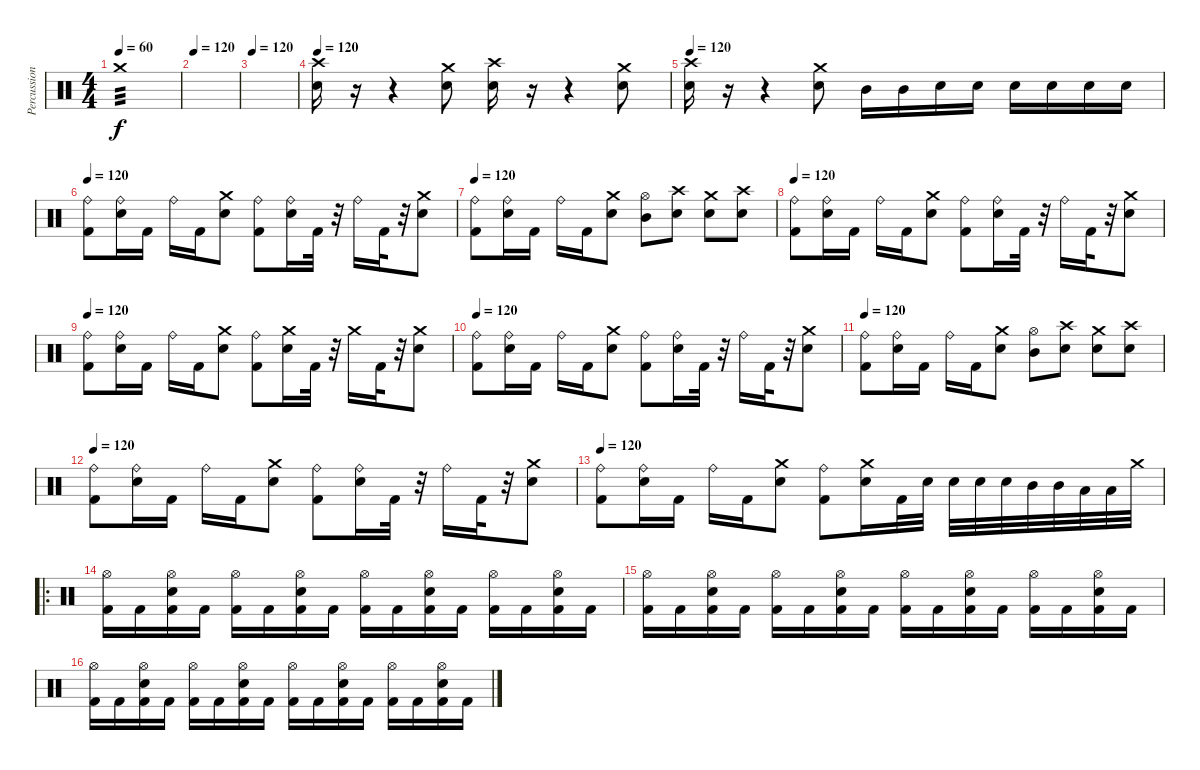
\track ("Percussions" "Percussion") {instrument percussion}
\staff {score}
\articulation defaults
\ts (4 4)
\tempo 60
\clef neutral
\ks c "Crash medium (hit)".1{tp 3 dy f}
|
\tempo 120
|
\tempo 120
|
\tempo 120
("Crash high (hit)" "Snare (hit) 2").16 r.16 r.4 ("Crash medium (hit)" "Electric Snare (hit)").8 ("Crash high (hit)" "Snare (hit) 2").16 r.16 r.4 ("Crash medium (hit)" "Electric Snare (hit)").8 |
\tempo 120
("Crash high (hit)" "Snare (hit) 2").16 r.16 r.4 ("Crash medium (hit)" "Electric Snare (hit)").8 "Mid Tom (hit)".16 "Mid Tom (hit)".16 "Snare (hit) 2".16 "Snare (hit) 2".16 "Electric Snare (hit)".16 "Electric Snare (hit)".16 "Snare (hit) 2".16 "Snare (hit) 2".16 |
\tempo 120
("Ride (bell)" "Kick (hit) 2").8 ("Ride (bell)" "Electric Snare (hit)").16 "Kick (hit) 2".16 "Ride (bell)".16 "Kick (hit) 2".16 ("Crash medium (hit)" "Electric Snare (hit)").8 ("Ride (bell)" "Kick (hit) 2").8 ("Ride (bell)" "Electric Snare (hit)").16 "Kick (hit) 2".32 r.32 "Ride (bell)".16 "Kick (hit) 2".32 r.32 ("Crash medium (hit)" "Electric Snare (hit)").8 |
\tempo 120
("Ride (bell)" "Kick (hit) 2").8 ("Ride (bell)" "Electric Snare (hit)").16 "Kick (hit) 2".16 "Ride (bell)".16 "Kick (hit) 2".16 ("Crash medium (hit)" "Electric Snare (hit)").8 ("Mid Tom (hit)" "Hi-Hat (open)").8 ("Snare (hit) 2" "Crash high (hit)").8 ("Electric Snare (hit)" "Crash medium (hit)").8 ("Snare (hit) 2" "Crash high (hit)").8 |
\tempo 120
("Ride (bell)" "Kick (hit) 2").8 ("Ride (bell)" "Electric Snare (hit)").16 "Kick (hit) 2".16 "Ride (bell)".16 "Kick (hit) 2".16 ("Crash medium (hit)" "Electric Snare (hit)").8 ("Ride (bell)" "Kick (hit) 2").8 ("Ride (bell)" "Electric Snare (hit)").16 "Kick (hit) 2".32 r.32 "Ride (bell)".16 "Kick (hit) 2".32 r.32 ("Crash medium (hit)" "Electric Snare (hit)").8 |
\tempo 120
("Ride (bell)" "Kick (hit) 2").8 ("Ride (bell)" "Electric Snare (hit)").16 "Kick (hit) 2".16 "Ride (bell)".16 "Kick (hit) 2".16 ("Crash medium (hit)" "Electric Snare (hit)").8 ("Ride (bell)" "Kick (hit) 2").8 ("Crash medium (hit)" "Electric Snare (hit)").16 "Kick (hit) 2".32 r.32 "Crash medium (hit)".16 "Kick (hit) 2".32 r.32 ("Crash medium (hit)" "Electric Snare (hit)").8 |
\tempo 120
("Ride (bell)" "Kick (hit) 2").8 ("Ride (bell)" "Electric Snare (hit)").16 "Kick (hit) 2".16 "Ride (bell)".16 "Kick (hit) 2".16 ("Crash medium (hit)" "Electric Snare (hit)").8 ("Ride (bell)" "Kick (hit) 2").8 ("Ride (bell)" "Electric Snare (hit)").16 "Kick (hit) 2".32 r.32 "Ride (bell)".16 "Kick (hit) 2".32 r.32 ("Crash medium (hit)" "Electric Snare (hit)").8 |
\tempo 120
("Ride (bell)" "Kick (hit) 2").8 ("Ride (bell)" "Electric Snare (hit)").16 "Kick (hit) 2".16 "Ride (bell)".16 "Kick (hit) 2".16 ("Crash medium (hit)" "Electric Snare (hit)").8 ("Mid Tom (hit)" "Hi-Hat (open)").8 ("Snare (hit) 2" "Crash high (hit)").8 ("Electric Snare (hit)" "Crash medium (hit)").8 ("Snare (hit) 2" "Crash high (hit)").8 |
\tempo 120
("Ride (bell)" "Kick (hit) 2").8 ("Ride (bell)" "Electric Snare (hit)").16 "Kick (hit) 2".16 "Ride (bell)".16 "Kick (hit) 2".16 ("Crash medium (hit)" "Electric Snare (hit)").8 ("Ride (bell)" "Kick (hit) 2").8 ("Ride (bell)" "Electric Snare (hit)").16 "Kick (hit) 2".32 r.32 "Ride (bell)".16 "Kick (hit) 2".32 r.32 ("Crash medium (hit)" "Electric Snare (hit)").8 |
\tempo 120
("Ride (bell)" "Kick (hit) 2").8 ("Ride (bell)" "Electric Snare (hit)").16 "Kick (hit) 2".16 "Ride (bell)".16 "Kick (hit) 2".16 ("Crash medium (hit)" "Electric Snare (hit)").8 ("Ride (bell)" "Kick (hit) 2").8 ("Crash medium (hit)" "Electric Snare (hit)").16 "Kick (hit) 2".32 "Electric Snare (hit)".32 "Electric Snare (hit)".32 "Snare (hit) 2".32 "Snare (hit) 2".32 "Mid Tom (hit)".32 "Mid Tom (hit)".32 "Low Tom (hit)".32 "Low Tom (hit)".32 "Crash medium (hit)".32 |
\ro
("Kick (hit) 2" "Hi-Hat (open)").16 "Kick (hit) 2".16 ("Kick (hit) 2" "Electric Snare (hit)" "Hi-Hat (open)").16 "Kick (hit) 2".16 ("Kick (hit) 2" "Hi-Hat (open)").16 "Kick (hit) 2".16 ("Kick (hit) 2" "Electric Snare (hit)" "Hi-Hat (open)").16 "Kick (hit) 2".16 ("Kick (hit) 2" "Hi-Hat (open)").16 "Kick (hit) 2".16 ("Kick (hit) 2" "Electric Snare (hit)" "Hi-Hat (open)").16 "Kick (hit) 2".16 ("Kick (hit) 2" "Hi-Hat (open)").16 "Kick (hit) 2".16 ("Kick (hit) 2" "Electric Snare (hit)" "Hi-Hat (open)").16 "Kick (hit) 2".16 |
("Kick (hit) 2" "Hi-Hat (open)").16 "Kick (hit) 2".16 ("Kick (hit) 2" "Electric Snare (hit)" "Hi-Hat (open)").16 "Kick (hit) 2".16 ("Kick (hit) 2" "Hi-Hat (open)").16 "Kick (hit) 2".16 ("Kick (hit) 2" "Electric Snare (hit)" "Hi-Hat (open)").16 "Kick (hit) 2".16 ("Kick (hit) 2" "Hi-Hat (open)").16 "Kick (hit) 2".16 ("Kick (hit) 2" "Electric Snare (hit)" "Hi-Hat (open)").16 "Kick (hit) 2".16 ("Kick (hit) 2" "Hi-Hat (open)").16 "Kick (hit) 2".16 ("Kick (hit) 2" "Electric Snare (hit)" "Hi-Hat (open)").16 "Kick (hit) 2".16 |
("Kick (hit) 2" "Hi-Hat (open)").16 "Kick (hit) 2".16 ("Kick (hit) 2" "Electric Snare (hit)" "Hi-Hat (open)").16 "Kick (hit) 2".16 ("Kick (hit) 2" "Hi-Hat (open)").16 "Kick (hit) 2".16 ("Kick (hit) 2" "Electric Snare (hit)" "Hi-Hat (open)").16 "Kick (hit) 2".16 ("Kick (hit) 2" "Hi-Hat (open)").16 "Kick (hit) 2".16 ("Kick (hit) 2" "Electric Snare (hit)" "Hi-Hat (open)").16 "Kick (hit) 2".16 ("Kick (hit) 2" "Hi-Hat (open)").16 "Kick (hit) 2".16 ("Kick (hit) 2" "Electric Snare (hit)" "Hi-Hat (open)").16 "Kick (hit) 2".16
